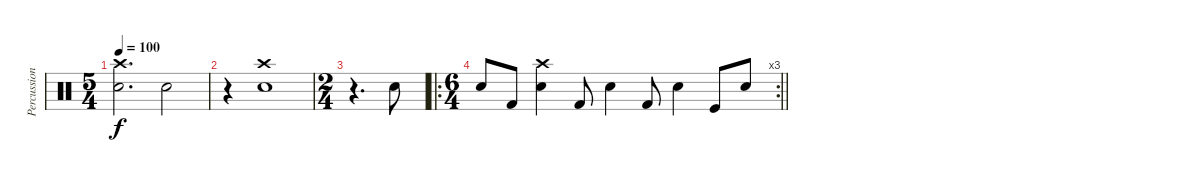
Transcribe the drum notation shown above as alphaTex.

\track ("Percussion" "Percussion") {instrument percussion}
\staff {score}
\articulation defaults
\ts (5 4)
\tempo 100
\clef neutral
\ks c
("Crash high (hit)" "Snare (hit) 2").2{d dy f} "Snare (hit) 2".2 |
r.4 ("Crash high (hit)" "Snare (hit) 2").1 |
\ts (2 4)
r.4{d} "Snare (hit) 2".8 |
\ro
\rc 3
\ts (6 4)
\barLineRight lightlight "Snare (hit) 2".8 "Kick (hit) 2".8
("Crash high (hit)" "Snare (hit) 2").4 "Kick (hit) 2".8 "Snare (hit) 2".4 "Kick (hit) 2".8 "Snare (hit) 2".4 "Kick (hit)".8 "Snare (hit) 2".8
